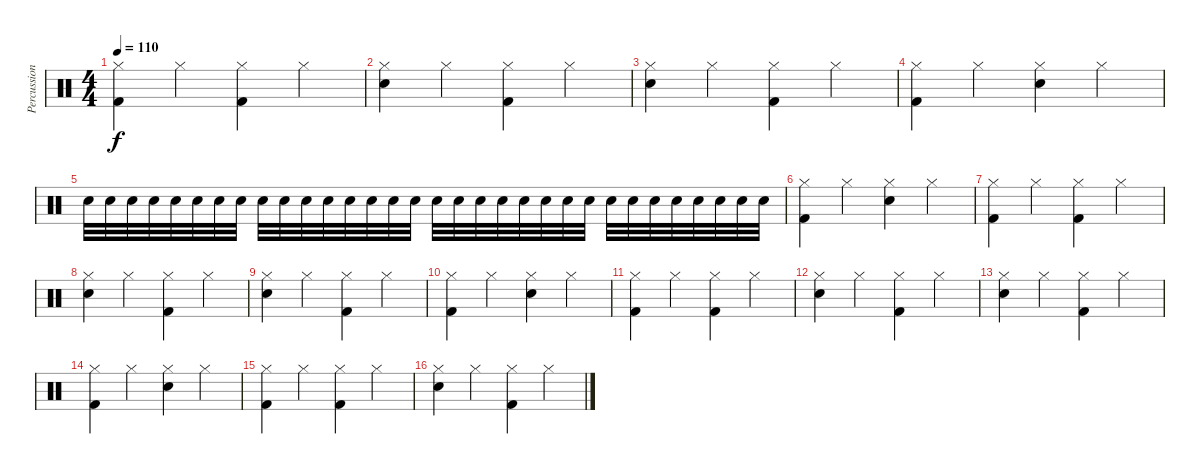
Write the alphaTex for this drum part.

\track ("Percussion" "Percussion") {instrument percussion}
\staff {score}
\articulation defaults
\ts (4 4)
\tempo 110
\clef neutral
\ks c
("Hi-Hat (closed)" "Kick (hit) 2").4{dy f} "Hi-Hat (closed)".4 ("Hi-Hat (closed)" "Kick (hit) 2").4 "Hi-Hat (closed)".4 |
("Hi-Hat (closed)" "Snare (hit) 2").4 "Hi-Hat (closed)".4 ("Hi-Hat (closed)" "Kick (hit) 2").4 "Hi-Hat (closed)".4 |
("Hi-Hat (closed)" "Snare (hit) 2").4 "Hi-Hat (closed)".4 ("Hi-Hat (closed)" "Kick (hit) 2").4 "Hi-Hat (closed)".4 |
("Hi-Hat (closed)" "Kick (hit) 2").4 "Hi-Hat (closed)".4 ("Hi-Hat (closed)" "Snare (hit) 2").4 "Hi-Hat (closed)".4 |
"Snare (hit) 2".32{volume 3} "Snare (hit) 2".32 "Snare (hit) 2".32 "Snare (hit) 2".32 "Snare (hit) 2".32 "Snare (hit) 2".32 "Snare (hit) 2".32 "Snare (hit) 2".32 "Snare (hit) 2".32 "Snare (hit) 2".32 "Snare (hit) 2".32 "Snare (hit) 2".32 "Snare (hit) 2".32 "Snare (hit) 2".32 "Snare (hit) 2".32 "Snare (hit) 2".32 "Snare (hit) 2".32{volume 9} "Snare (hit) 2".32 "Snare (hit) 2".32 "Snare (hit) 2".32 "Snare (hit) 2".32 "Snare (hit) 2".32 "Snare (hit) 2".32 "Snare (hit) 2".32 "Snare (hit) 2".32 "Snare (hit) 2".32 "Snare (hit) 2".32 "Snare (hit) 2".32 "Snare (hit) 2".32 "Snare (hit) 2".32 "Snare (hit) 2".32 "Snare (hit) 2".32 |
("Hi-Hat (closed)" "Kick (hit) 2").4{volume 10} "Hi-Hat (closed)".4 ("Hi-Hat (closed)" "Snare (hit) 2").4 "Hi-Hat (closed)".4 |
("Hi-Hat (closed)" "Kick (hit) 2").4 "Hi-Hat (closed)".4 ("Hi-Hat (closed)" "Kick (hit) 2").4 "Hi-Hat (closed)".4 |
("Hi-Hat (closed)" "Snare (hit) 2").4 "Hi-Hat (closed)".4 ("Hi-Hat (closed)" "Kick (hit) 2").4 "Hi-Hat (closed)".4 |
("Hi-Hat (closed)" "Snare (hit) 2").4 "Hi-Hat (closed)".4 ("Hi-Hat (closed)" "Kick (hit) 2").4 "Hi-Hat (closed)".4 |
("Hi-Hat (closed)" "Kick (hit) 2").4{volume 10} "Hi-Hat (closed)".4 ("Hi-Hat (closed)" "Snare (hit) 2").4 "Hi-Hat (closed)".4 |
("Hi-Hat (closed)" "Kick (hit) 2").4 "Hi-Hat (closed)".4 ("Hi-Hat (closed)" "Kick (hit) 2").4 "Hi-Hat (closed)".4 |
("Hi-Hat (closed)" "Snare (hit) 2").4 "Hi-Hat (closed)".4 ("Hi-Hat (closed)" "Kick (hit) 2").4 "Hi-Hat (closed)".4 |
("Hi-Hat (closed)" "Snare (hit) 2").4 "Hi-Hat (closed)".4 ("Hi-Hat (closed)" "Kick (hit) 2").4 "Hi-Hat (closed)".4 |
("Hi-Hat (closed)" "Kick (hit) 2").4 "Hi-Hat (closed)".4 ("Hi-Hat (closed)" "Snare (hit) 2").4 "Hi-Hat (closed)".4 |
("Hi-Hat (closed)" "Kick (hit) 2").4 "Hi-Hat (closed)".4 ("Hi-Hat (closed)" "Kick (hit) 2").4 "Hi-Hat (closed)".4 |
("Hi-Hat (closed)" "Snare (hit) 2").4 "Hi-Hat (closed)".4 ("Hi-Hat (closed)" "Kick (hit) 2").4 "Hi-Hat (closed)".4
